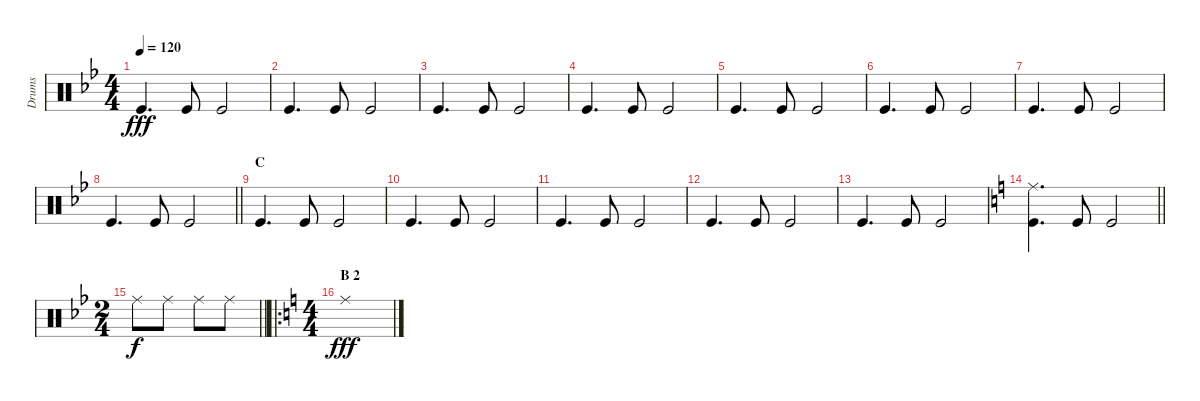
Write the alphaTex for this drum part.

\track ("Drums" "Drums") {instrument percussion}
\staff {score}
\articulation defaults
\ts (4 4)
\tempo 120
\clef neutral
\ks gminor "Kick (hit)".4{d dy fff} "Kick (hit)".8 "Kick (hit)".2
|
"Kick (hit)".4{d} "Kick (hit)".8 "Kick (hit)".2 |
"Kick (hit)".4{d} "Kick (hit)".8 "Kick (hit)".2 |
"Kick (hit)".4{d} "Kick (hit)".8 "Kick (hit)".2 |
"Kick (hit)".4{d} "Kick (hit)".8 "Kick (hit)".2 |
"Kick (hit)".4{d} "Kick (hit)".8 "Kick (hit)".2 |
"Kick (hit)".4{d} "Kick (hit)".8 "Kick (hit)".2 |
\barLineRight lightlight "Kick (hit)".4{d} "Kick (hit)".8 "Kick (hit)".2
|
\section ("" "C")
"Kick (hit)".4{d} "Kick (hit)".8 "Kick (hit)".2 |
"Kick (hit)".4{d} "Kick (hit)".8 "Kick (hit)".2 |
"Kick (hit)".4{d} "Kick (hit)".8 "Kick (hit)".2 |
"Kick (hit)".4{d} "Kick (hit)".8 "Kick (hit)".2 |
"Kick (hit)".4{d} "Kick (hit)".8 "Kick (hit)".2 |
\barLineRight lightlight
\ks aminor
("Ride (middle)" "Kick (hit)").4{d} "Kick (hit)".8 "Kick (hit)".2 |
\ts (2 4)
\barLineRight lightlight
\ks gminor "Ride (middle)".8{dy f} "Ride (middle)".8 "Ride (middle)".8 "Ride (middle)".8
|
\ro
\ts (4 4)
\section ("" "B 2")
\ks c "Ride (middle)".1{dy fff}
